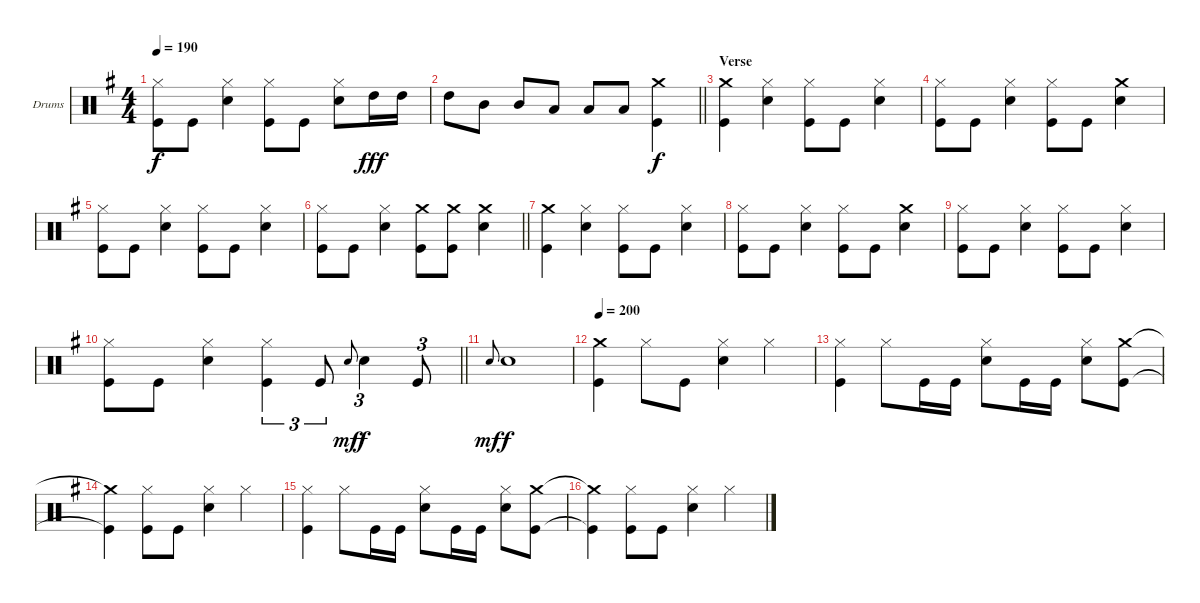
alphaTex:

\bracketExtendMode groupsimilarinstruments
\firstSystemTrackNameOrientation horizontal
\otherSystemsTrackNameOrientation horizontal
\track ("Drums" "Drums") {instrument percussion}
\staff {score}
\articulation defaults
\ts (4 4)
\tempo 190
\clef neutral
\ks g
("Kick (hit)" "Hi-Hat (closed)").8{dy f} "Kick (hit)".8 ("Snare (hit) 2" "Hi-Hat (closed)").4 ("Kick (hit)" "Hi-Hat (closed)").8 "Kick (hit)".8 ("Snare (hit) 2" "Hi-Hat (closed)").8 "High Tom (hit)".16{dy fff} "High Tom (hit)".16 |
\barLineRight lightlight "High Tom (hit)".8 "Mid Tom (hit)".8 "Mid Tom (hit)".8 "Low Tom (hit)".8 "Low Tom (hit)".8 "Low Tom (hit)".8
("Crash medium (hit)" "Kick (hit)").4{dy f} |
\section ("" "Verse")
("Crash medium (hit)" "Kick (hit)").4 ("Snare (hit) 2" "Hi-Hat (closed)").4 ("Kick (hit)" "Hi-Hat (closed)").8 "Kick (hit)".8 ("Snare (hit) 2" "Hi-Hat (closed)").4 |
("Kick (hit)" "Hi-Hat (closed)").8 "Kick (hit)".8 ("Snare (hit) 2" "Hi-Hat (closed)").4 ("Kick (hit)" "Hi-Hat (closed)").8 "Kick (hit)".8 ("Crash medium (hit)" "Snare (hit) 2").4 |
("Kick (hit)" "Hi-Hat (closed)").8 "Kick (hit)".8 ("Snare (hit) 2" "Hi-Hat (closed)").4 ("Kick (hit)" "Hi-Hat (closed)").8 "Kick (hit)".8 ("Snare (hit) 2" "Hi-Hat (closed)").4 |
\barLineRight lightlight
("Kick (hit)" "Hi-Hat (closed)").8 "Kick (hit)".8 ("Snare (hit) 2" "Hi-Hat (closed)").4 ("Crash medium (hit)" "Kick (hit)").8 ("Crash medium (hit)" "Kick (hit)").8 ("Crash medium (hit)" "Snare (hit) 2").4 |
("Crash medium (hit)" "Kick (hit)").4 ("Snare (hit) 2" "Hi-Hat (closed)").4 ("Kick (hit)" "Hi-Hat (closed)").8 "Kick (hit)".8 ("Snare (hit) 2" "Hi-Hat (closed)").4 |
("Kick (hit)" "Hi-Hat (closed)").8 "Kick (hit)".8 ("Snare (hit) 2" "Hi-Hat (closed)").4 ("Kick (hit)" "Hi-Hat (closed)").8 "Kick (hit)".8 ("Crash medium (hit)" "Snare (hit) 2").4 |
("Kick (hit)" "Hi-Hat (closed)").8 "Kick (hit)".8 ("Snare (hit) 2" "Hi-Hat (closed)").4 ("Kick (hit)" "Hi-Hat (closed)").8 "Kick (hit)".8 ("Snare (hit) 2" "Hi-Hat (closed)").4 |
\barLineRight lightlight
("Kick (hit)" "Hi-Hat (closed)").8 "Kick (hit)".8 ("Snare (hit) 2" "Hi-Hat (closed)").4 ("Kick (hit)" "Hi-Hat (closed)").4{tu (3 2)} "Kick (hit)".8{tu (3 2)} "Snare (hit) 2".8{tu (3 2) gr onbeat dy mf} "Snare (hit) 2".4{tu (3 2) dy f} "Kick (hit)".8{tu (3 2)} |
"Snare (hit) 2".8{gr onbeat dy mf} "Snare (hit) 2".1{dy f} |
\tempo 200
("Crash medium (hit)" "Kick (hit)").4 "Hi-Hat (closed)".8 "Kick (hit)".8 ("Hi-Hat (closed)" "Snare (hit) 2").4 "Hi-Hat (closed)".4 |
("Kick (hit)" "Hi-Hat (closed)").4 "Hi-Hat (closed)".8 "Kick (hit)".16 "Kick (hit)".16 ("Snare (hit) 2" "Hi-Hat (closed)").8 "Kick (hit)".16 "Kick (hit)".16 ("Snare (hit) 2" "Hi-Hat (closed)").8 ("Crash medium (hit)" "Kick (hit)").8 |
("Crash medium (hit)"{t} "Kick (hit)"{t}).4 ("Kick (hit)" "Hi-Hat (closed)").8 "Kick (hit)".8 ("Hi-Hat (closed)" "Snare (hit) 2").4 "Hi-Hat (closed)".4 |
("Kick (hit)" "Hi-Hat (closed)").4 "Hi-Hat (closed)".8 "Kick (hit)".16 "Kick (hit)".16 ("Snare (hit) 2" "Hi-Hat (closed)").8 "Kick (hit)".16 "Kick (hit)".16 ("Snare (hit) 2" "Hi-Hat (closed)").8 ("Crash medium (hit)" "Kick (hit)").8 |
("Crash medium (hit)"{t} "Kick (hit)"{t}).4 ("Hi-Hat (closed)" "Kick (hit)").8 "Kick (hit)".8 ("Hi-Hat (closed)" "Snare (hit) 2").4 "Hi-Hat (closed)".4
